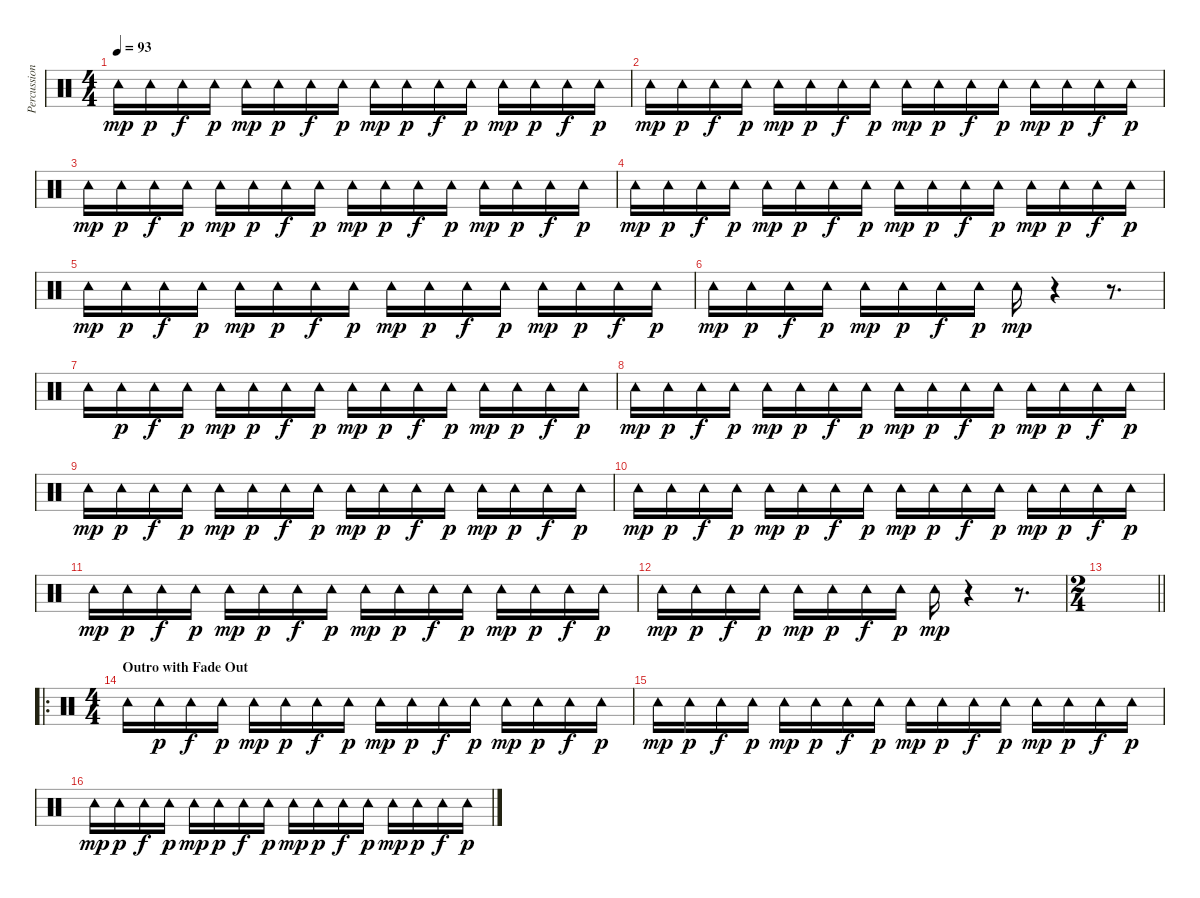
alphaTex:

\track ("Percussion" "Percussion") {instrument percussion}
\staff {score}
\articulation defaults
\ts (4 4)
\tempo 93
\clef neutral
\ks c "Tambourine (hit)".16{dy mp} "Tambourine (hit)".16{dy p} "Tambourine (hit)".16{dy f} "Tambourine (hit)".16{dy p} "Tambourine (hit)".16{dy mp} "Tambourine (hit)".16{dy p} "Tambourine (hit)".16{dy f} "Tambourine (hit)".16{dy p} "Tambourine (hit)".16{dy mp} "Tambourine (hit)".16{dy p} "Tambourine (hit)".16{dy f} "Tambourine (hit)".16{dy p} "Tambourine (hit)".16{dy mp} "Tambourine (hit)".16{dy p} "Tambourine (hit)".16{dy f} "Tambourine (hit)".16{dy p}
|
"Tambourine (hit)".16{dy mp} "Tambourine (hit)".16{dy p} "Tambourine (hit)".16{dy f} "Tambourine (hit)".16{dy p} "Tambourine (hit)".16{dy mp} "Tambourine (hit)".16{dy p} "Tambourine (hit)".16{dy f} "Tambourine (hit)".16{dy p} "Tambourine (hit)".16{dy mp} "Tambourine (hit)".16{dy p} "Tambourine (hit)".16{dy f} "Tambourine (hit)".16{dy p} "Tambourine (hit)".16{dy mp} "Tambourine (hit)".16{dy p} "Tambourine (hit)".16{dy f} "Tambourine (hit)".16{dy p} |
"Tambourine (hit)".16{dy mp} "Tambourine (hit)".16{dy p} "Tambourine (hit)".16{dy f} "Tambourine (hit)".16{dy p} "Tambourine (hit)".16{dy mp} "Tambourine (hit)".16{dy p} "Tambourine (hit)".16{dy f} "Tambourine (hit)".16{dy p} "Tambourine (hit)".16{dy mp} "Tambourine (hit)".16{dy p} "Tambourine (hit)".16{dy f} "Tambourine (hit)".16{dy p} "Tambourine (hit)".16{dy mp} "Tambourine (hit)".16{dy p} "Tambourine (hit)".16{dy f} "Tambourine (hit)".16{dy p} |
"Tambourine (hit)".16{dy mp} "Tambourine (hit)".16{dy p} "Tambourine (hit)".16{dy f} "Tambourine (hit)".16{dy p} "Tambourine (hit)".16{dy mp} "Tambourine (hit)".16{dy p} "Tambourine (hit)".16{dy f} "Tambourine (hit)".16{dy p} "Tambourine (hit)".16{dy mp} "Tambourine (hit)".16{dy p} "Tambourine (hit)".16{dy f} "Tambourine (hit)".16{dy p} "Tambourine (hit)".16{dy mp} "Tambourine (hit)".16{dy p} "Tambourine (hit)".16{dy f} "Tambourine (hit)".16{dy p} |
"Tambourine (hit)".16{dy mp} "Tambourine (hit)".16{dy p} "Tambourine (hit)".16{dy f} "Tambourine (hit)".16{dy p} "Tambourine (hit)".16{dy mp} "Tambourine (hit)".16{dy p} "Tambourine (hit)".16{dy f} "Tambourine (hit)".16{dy p} "Tambourine (hit)".16{dy mp} "Tambourine (hit)".16{dy p} "Tambourine (hit)".16{dy f} "Tambourine (hit)".16{dy p} "Tambourine (hit)".16{dy mp} "Tambourine (hit)".16{dy p} "Tambourine (hit)".16{dy f} "Tambourine (hit)".16{dy p} |
"Tambourine (hit)".16{dy mp} "Tambourine (hit)".16{dy p} "Tambourine (hit)".16{dy f} "Tambourine (hit)".16{dy p} "Tambourine (hit)".16{dy mp} "Tambourine (hit)".16{dy p} "Tambourine (hit)".16{dy f} "Tambourine (hit)".16{dy p} "Tambourine (hit)".16{dy mp} r.4 r.8{d} |
"Tambourine (hit)".16 "Tambourine (hit)".16{dy p} "Tambourine (hit)".16{dy f} "Tambourine (hit)".16{dy p} "Tambourine (hit)".16{dy mp} "Tambourine (hit)".16{dy p} "Tambourine (hit)".16{dy f} "Tambourine (hit)".16{dy p} "Tambourine (hit)".16{dy mp} "Tambourine (hit)".16{dy p} "Tambourine (hit)".16{dy f} "Tambourine (hit)".16{dy p} "Tambourine (hit)".16{dy mp} "Tambourine (hit)".16{dy p} "Tambourine (hit)".16{dy f} "Tambourine (hit)".16{dy p} |
"Tambourine (hit)".16{dy mp} "Tambourine (hit)".16{dy p} "Tambourine (hit)".16{dy f} "Tambourine (hit)".16{dy p} "Tambourine (hit)".16{dy mp} "Tambourine (hit)".16{dy p} "Tambourine (hit)".16{dy f} "Tambourine (hit)".16{dy p} "Tambourine (hit)".16{dy mp} "Tambourine (hit)".16{dy p} "Tambourine (hit)".16{dy f} "Tambourine (hit)".16{dy p} "Tambourine (hit)".16{dy mp} "Tambourine (hit)".16{dy p} "Tambourine (hit)".16{dy f} "Tambourine (hit)".16{dy p} |
"Tambourine (hit)".16{dy mp} "Tambourine (hit)".16{dy p} "Tambourine (hit)".16{dy f} "Tambourine (hit)".16{dy p} "Tambourine (hit)".16{dy mp} "Tambourine (hit)".16{dy p} "Tambourine (hit)".16{dy f} "Tambourine (hit)".16{dy p} "Tambourine (hit)".16{dy mp} "Tambourine (hit)".16{dy p} "Tambourine (hit)".16{dy f} "Tambourine (hit)".16{dy p} "Tambourine (hit)".16{dy mp} "Tambourine (hit)".16{dy p} "Tambourine (hit)".16{dy f} "Tambourine (hit)".16{dy p} |
"Tambourine (hit)".16{dy mp} "Tambourine (hit)".16{dy p} "Tambourine (hit)".16{dy f} "Tambourine (hit)".16{dy p} "Tambourine (hit)".16{dy mp} "Tambourine (hit)".16{dy p} "Tambourine (hit)".16{dy f} "Tambourine (hit)".16{dy p} "Tambourine (hit)".16{dy mp} "Tambourine (hit)".16{dy p} "Tambourine (hit)".16{dy f} "Tambourine (hit)".16{dy p} "Tambourine (hit)".16{dy mp} "Tambourine (hit)".16{dy p} "Tambourine (hit)".16{dy f} "Tambourine (hit)".16{dy p} |
"Tambourine (hit)".16{dy mp} "Tambourine (hit)".16{dy p} "Tambourine (hit)".16{dy f} "Tambourine (hit)".16{dy p} "Tambourine (hit)".16{dy mp} "Tambourine (hit)".16{dy p} "Tambourine (hit)".16{dy f} "Tambourine (hit)".16{dy p} "Tambourine (hit)".16{dy mp} "Tambourine (hit)".16{dy p} "Tambourine (hit)".16{dy f} "Tambourine (hit)".16{dy p} "Tambourine (hit)".16{dy mp} "Tambourine (hit)".16{dy p} "Tambourine (hit)".16{dy f} "Tambourine (hit)".16{dy p} |
"Tambourine (hit)".16{dy mp} "Tambourine (hit)".16{dy p} "Tambourine (hit)".16{dy f} "Tambourine (hit)".16{dy p} "Tambourine (hit)".16{dy mp} "Tambourine (hit)".16{dy p} "Tambourine (hit)".16{dy f} "Tambourine (hit)".16{dy p} "Tambourine (hit)".16{dy mp} r.4 r.8{d} |
\ts (2 4)
\barLineRight lightlight
|
\ro
\ts (4 4)
\section ("" "Outro with Fade Out")
"Tambourine (hit)".16 "Tambourine (hit)".16{dy p} "Tambourine (hit)".16{dy f} "Tambourine (hit)".16{dy p} "Tambourine (hit)".16{dy mp} "Tambourine (hit)".16{dy p} "Tambourine (hit)".16{dy f} "Tambourine (hit)".16{dy p} "Tambourine (hit)".16{dy mp} "Tambourine (hit)".16{dy p} "Tambourine (hit)".16{dy f} "Tambourine (hit)".16{dy p} "Tambourine (hit)".16{dy mp} "Tambourine (hit)".16{dy p} "Tambourine (hit)".16{dy f} "Tambourine (hit)".16{dy p} |
"Tambourine (hit)".16{dy mp} "Tambourine (hit)".16{dy p} "Tambourine (hit)".16{dy f} "Tambourine (hit)".16{dy p} "Tambourine (hit)".16{dy mp} "Tambourine (hit)".16{dy p} "Tambourine (hit)".16{dy f} "Tambourine (hit)".16{dy p} "Tambourine (hit)".16{dy mp} "Tambourine (hit)".16{dy p} "Tambourine (hit)".16{dy f} "Tambourine (hit)".16{dy p} "Tambourine (hit)".16{dy mp} "Tambourine (hit)".16{dy p} "Tambourine (hit)".16{dy f} "Tambourine (hit)".16{dy p} |
"Tambourine (hit)".16{dy mp} "Tambourine (hit)".16{dy p} "Tambourine (hit)".16{dy f} "Tambourine (hit)".16{dy p} "Tambourine (hit)".16{dy mp} "Tambourine (hit)".16{dy p} "Tambourine (hit)".16{dy f} "Tambourine (hit)".16{dy p} "Tambourine (hit)".16{dy mp} "Tambourine (hit)".16{dy p} "Tambourine (hit)".16{dy f} "Tambourine (hit)".16{dy p} "Tambourine (hit)".16{dy mp} "Tambourine (hit)".16{dy p} "Tambourine (hit)".16{dy f} "Tambourine (hit)".16{dy p}
